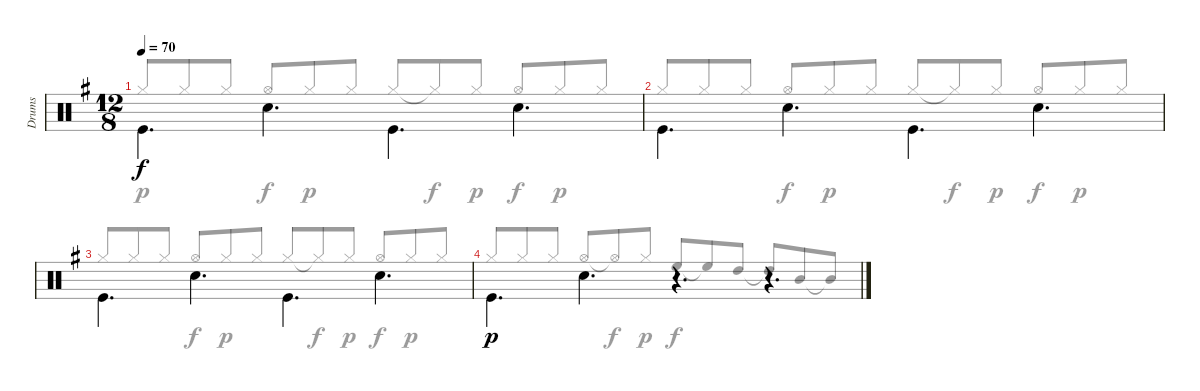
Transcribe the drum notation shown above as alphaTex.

\track ("Drums" "Drums") {instrument percussion}
\staff {score}
\articulation defaults
\voice
\ts (12 8)
\tempo 70
\clef neutral
\ks eminor "Kick (hit)".4{d dy f beam Down} "Snare (hit) 2".4{d beam Down} "Kick (hit)".4{d beam Down} "Snare (hit) 2".4{d beam Down}
|
"Kick (hit)".4{d beam Down} "Snare (hit) 2".4{d beam Down} "Kick (hit)".4{d beam Down} "Snare (hit) 2".4{d beam Down} |
"Kick (hit)".4{d beam Down} "Snare (hit) 2".4{d beam Down} "Kick (hit)".4{d beam Down} "Snare (hit) 2".4{d beam Down} |
"Kick (hit)".4{d dy p beam Down} "Snare (hit) 2".4{d beam Down} r.4{d} r.4{d}
\voice
\clef neutral
\ottava regular
\simile none
\ks eminor "Hi-Hat (closed)".8{dy p beam Up} "Hi-Hat (closed)".8{beam Up} "Hi-Hat (closed)".8{beam Up} "Hi-Hat (open)".8{dy f beam Up} "Hi-Hat (closed)".8{dy p beam Up} "Hi-Hat (closed)".8{beam Up} "Hi-Hat (closed)".8{beam Up} "Hi-Hat (closed)"{t}.8{dy f beam Up} "Hi-Hat (closed)".8{dy p beam Up} "Hi-Hat (open)".8{dy f beam Up} "Hi-Hat (closed)".8{dy p beam Up} "Hi-Hat (closed)".8{beam Up}
|
"Hi-Hat (closed)".8{beam Up} "Hi-Hat (closed)".8{beam Up} "Hi-Hat (closed)".8{beam Up} "Hi-Hat (open)".8{dy f beam Up} "Hi-Hat (closed)".8{dy p beam Up} "Hi-Hat (closed)".8{beam Up} "Hi-Hat (closed)".8{beam Up} "Hi-Hat (closed)"{t}.8{dy f beam Up} "Hi-Hat (closed)".8{dy p beam Up} "Hi-Hat (open)".8{dy f beam Up} "Hi-Hat (closed)".8{dy p beam Up} "Hi-Hat (closed)".8{beam Up} |
"Hi-Hat (closed)".8{beam Up} "Hi-Hat (closed)".8{beam Up} "Hi-Hat (closed)".8{beam Up} "Hi-Hat (open)".8{dy f beam Up} "Hi-Hat (closed)".8{dy p beam Up} "Hi-Hat (closed)".8{beam Up} "Hi-Hat (closed)".8{beam Up} "Hi-Hat (closed)"{t}.8{dy f beam Up} "Hi-Hat (closed)".8{dy p beam Up} "Hi-Hat (open)".8{dy f beam Up} "Hi-Hat (closed)".8{dy p beam Up} "Hi-Hat (closed)".8{beam Up} |
"Hi-Hat (closed)".8{beam Up} "Hi-Hat (closed)".8{beam Up} "Hi-Hat (closed)".8{beam Up} "Hi-Hat (open)".8{beam Up} "Hi-Hat (open)"{t}.8{dy f beam Up} "Hi-Hat (closed)".8{dy p beam Up} "High Floor Tom (hit)".8{dy f beam Up} "High Floor Tom (hit)"{t}.8{beam Up} "High Tom (hit)".8{beam Up} "High Tom (hit)"{t}.8{beam Up} "Mid Tom (hit)".8{beam Up} "Mid Tom (hit)"{t}.8{beam Up}
